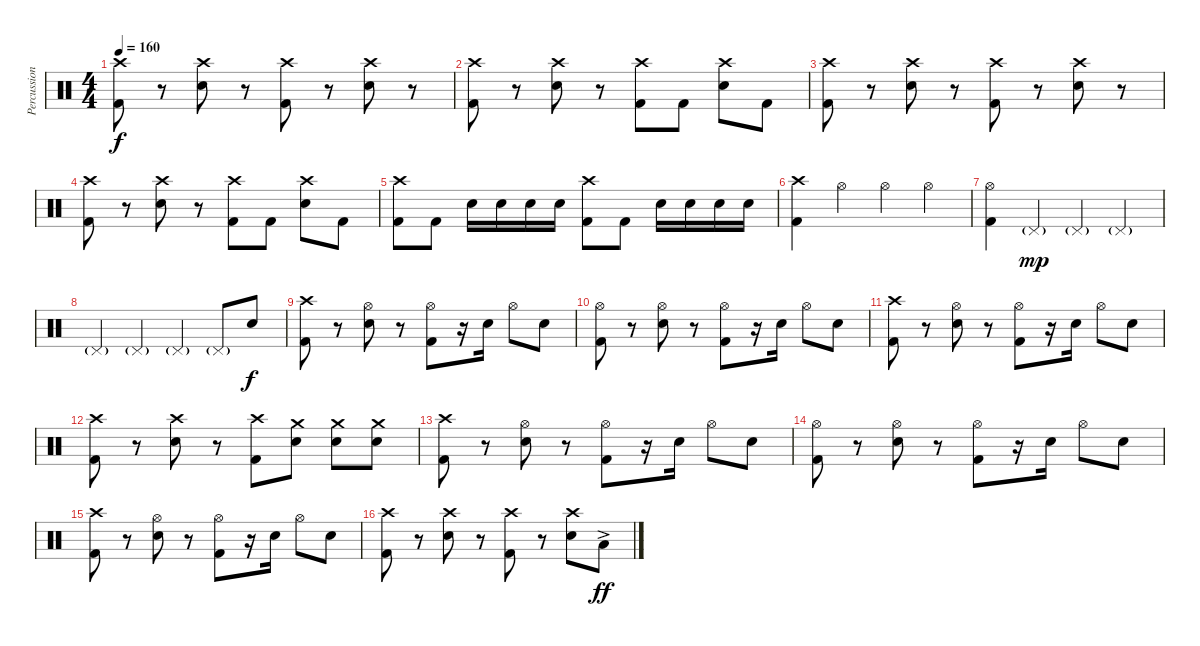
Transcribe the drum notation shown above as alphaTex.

\track ("Percussion" "Percussion") {instrument percussion}
\staff {score}
\articulation defaults
\ts (4 4)
\tempo 160
\clef neutral
\ks c
("Crash high (hit)" "Kick (hit) 2").8{dy f} r.8 ("Crash high (hit)" "Snare (hit) 2").8 r.8 ("Crash high (hit)" "Kick (hit) 2").8 r.8 ("Crash high (hit)" "Snare (hit) 2").8 r.8 |
("Crash high (hit)" "Kick (hit) 2").8 r.8 ("Crash high (hit)" "Snare (hit) 2").8 r.8 ("Crash high (hit)" "Kick (hit) 2").8 "Kick (hit) 2".8 ("Crash high (hit)" "Snare (hit) 2").8 "Kick (hit) 2".8 |
("Crash high (hit)" "Kick (hit) 2").8 r.8 ("Crash high (hit)" "Snare (hit) 2").8 r.8 ("Crash high (hit)" "Kick (hit) 2").8 r.8 ("Crash high (hit)" "Snare (hit) 2").8 r.8 |
("Crash high (hit)" "Kick (hit) 2").8 r.8 ("Crash high (hit)" "Snare (hit) 2").8 r.8 ("Crash high (hit)" "Kick (hit) 2").8 "Kick (hit) 2".8 ("Crash high (hit)" "Snare (hit) 2").8 "Kick (hit) 2".8 |
("Crash high (hit)" "Kick (hit) 2").8 "Kick (hit) 2".8 "Snare (hit) 2".16 "Snare (hit) 2".16 "Snare (hit) 2".16 "Snare (hit) 2".16 ("Crash high (hit)" "Kick (hit) 2").8 "Kick (hit) 2".8 "Snare (hit) 2".16 "Snare (hit) 2".16 "Snare (hit) 2".16 "Snare (hit) 2".16 |
("Crash high (hit)" "Kick (hit) 2").4 "Hi-Hat (open)".4 "Hi-Hat (open)".4 "Hi-Hat (open)".4 |
("Hi-Hat (open)" "Kick (hit) 2").4 "Pedal Hi-Hat (hit)"{g}.4{dy mp} "Pedal Hi-Hat (hit)"{g}.4 "Pedal Hi-Hat (hit)"{g}.4 |
"Pedal Hi-Hat (hit)"{g}.4 "Pedal Hi-Hat (hit)"{g}.4 "Pedal Hi-Hat (hit)"{g}.4 "Pedal Hi-Hat (hit)"{g}.8 "Snare (hit) 2".8{dy f} |
("Crash high (hit)" "Kick (hit) 2").8 r.8 ("Hi-Hat (open)" "Snare (hit) 2").8 r.8 ("Hi-Hat (open)" "Kick (hit) 2").8 r.16 "Snare (hit) 2".16 "Hi-Hat (open)".8 "Snare (hit) 2".8 |
("Hi-Hat (open)" "Kick (hit) 2").8 r.8 ("Hi-Hat (open)" "Snare (hit) 2").8 r.8 ("Hi-Hat (open)" "Kick (hit) 2").8 r.16 "Snare (hit) 2".16 "Hi-Hat (open)".8 "Snare (hit) 2".8 |
("Crash high (hit)" "Kick (hit) 2").8 r.8 ("Hi-Hat (open)" "Snare (hit) 2").8 r.8 ("Hi-Hat (open)" "Kick (hit) 2").8 r.16 "Snare (hit) 2".16 "Hi-Hat (open)".8 "Snare (hit) 2".8 |
("Crash high (hit)" "Kick (hit) 2").8 r.8 ("Crash high (hit)" "Snare (hit) 2").8 r.8 ("Crash high (hit)" "Kick (hit) 2").8 ("Crash medium (hit)" "Snare (hit) 2").8 ("Crash medium (hit)" "Snare (hit) 2").8 ("Crash medium (hit)" "Snare (hit) 2").8 |
("Crash high (hit)" "Kick (hit) 2").8 r.8 ("Hi-Hat (open)" "Snare (hit) 2").8 r.8 ("Hi-Hat (open)" "Kick (hit) 2").8 r.16 "Snare (hit) 2".16 "Hi-Hat (open)".8 "Snare (hit) 2".8 |
("Hi-Hat (open)" "Kick (hit) 2").8 r.8 ("Hi-Hat (open)" "Snare (hit) 2").8 r.8 ("Hi-Hat (open)" "Kick (hit) 2").8 r.16 "Snare (hit) 2".16 "Hi-Hat (open)".8 "Snare (hit) 2".8 |
("Crash high (hit)" "Kick (hit) 2").8 r.8 ("Hi-Hat (open)" "Snare (hit) 2").8 r.8 ("Hi-Hat (open)" "Kick (hit) 2").8 r.16 "Snare (hit) 2".16 "Hi-Hat (open)".8 "Snare (hit) 2".8 |
("Crash high (hit)" "Kick (hit) 2").8 r.8 ("Crash high (hit)" "Snare (hit) 2").8 r.8 ("Crash high (hit)" "Kick (hit) 2").8 r.8 ("Crash high (hit)" "Snare (hit) 2").8 "Low Tom (hit)"{ac}.8{dy ff}
